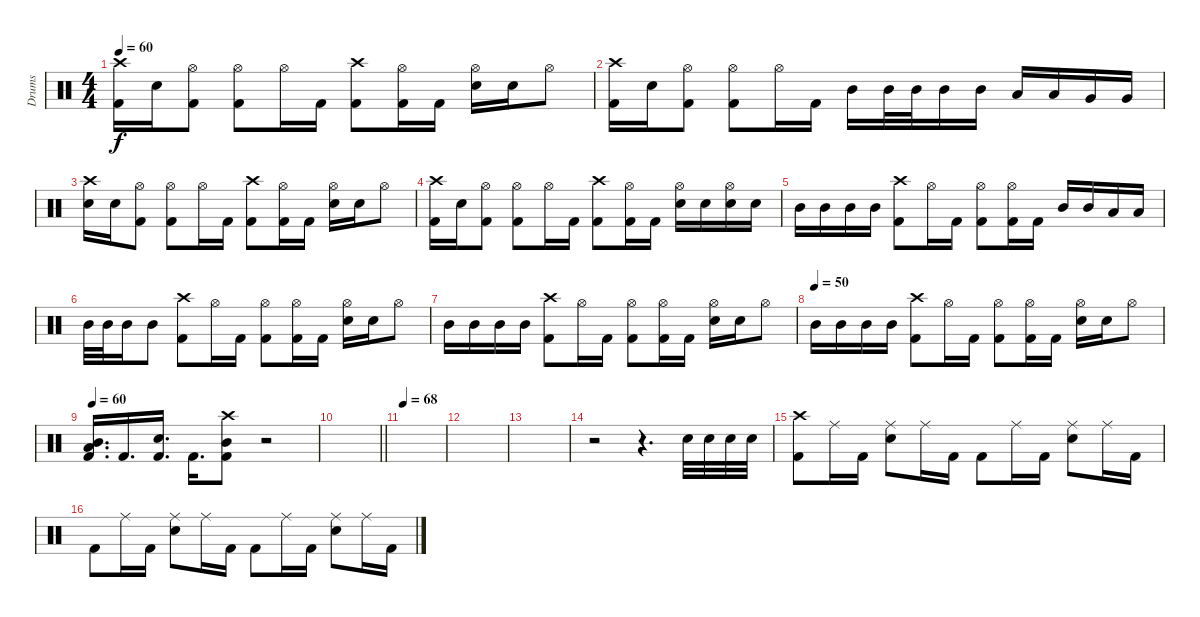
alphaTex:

\track ("Drums" "Drums") {instrument percussion}
\staff {score}
\articulation defaults
\ts (4 4)
\tempo 60
\clef neutral
\ks c
("Crash high (hit)" "Kick (hit) 2").16{dy f} "Electric Snare (hit)".16 ("Hi-Hat (open)" "Kick (hit) 2").8 ("Hi-Hat (open)" "Kick (hit) 2").8 "Hi-Hat (open)".16 "Kick (hit) 2".16 ("Crash high (hit)" "Kick (hit) 2").8 ("Hi-Hat (open)" "Kick (hit) 2").16 "Kick (hit) 2".16 ("Hi-Hat (open)" "Electric Snare (hit)").16 "Electric Snare (hit)".16 "Hi-Hat (open)".8 |
("Crash high (hit)" "Kick (hit) 2").16 "Electric Snare (hit)".16 ("Hi-Hat (open)" "Kick (hit) 2").8 ("Hi-Hat (open)" "Kick (hit) 2").8 "Hi-Hat (open)".16 "Kick (hit) 2".16 "Mid Tom (hit)".16 "Mid Tom (hit)".32 "Mid Tom (hit)".32 "Mid Tom (hit)".16 "Mid Tom (hit)".16 "Low Tom (hit)".16 "Low Tom (hit)".16 "Very Low Tom (hit)".16 "Very Low Tom (hit)".16 |
("Crash high (hit)" "Electric Snare (hit)").16 "Electric Snare (hit)".16 ("Hi-Hat (open)" "Kick (hit) 2").8 ("Hi-Hat (open)" "Kick (hit) 2").8 "Hi-Hat (open)".16 "Kick (hit) 2".16 ("Crash high (hit)" "Kick (hit) 2").8 ("Hi-Hat (open)" "Kick (hit) 2").16 "Kick (hit) 2".16 ("Hi-Hat (open)" "Electric Snare (hit)").16 "Electric Snare (hit)".16 "Hi-Hat (open)".8 |
("Crash high (hit)" "Kick (hit) 2").16 "Electric Snare (hit)".16 ("Hi-Hat (open)" "Kick (hit) 2").8 ("Hi-Hat (open)" "Kick (hit) 2").8 "Hi-Hat (open)".16 "Kick (hit) 2".16 ("Crash high (hit)" "Kick (hit) 2").8 ("Hi-Hat (open)" "Kick (hit) 2").16 "Kick (hit) 2".16 ("Hi-Hat (open)" "Electric Snare (hit)").16 "Electric Snare (hit)".16 ("Hi-Hat (open)" "Electric Snare (hit)").16 "Electric Snare (hit)".16 |
"Mid Tom (hit)".16 "Mid Tom (hit)".16 "Mid Tom (hit)".16 "Mid Tom (hit)".16 ("Crash high (hit)" "Kick (hit) 2").8 "Hi-Hat (open)".16 "Kick (hit) 2".16 ("Hi-Hat (open)" "Kick (hit) 2").8 ("Hi-Hat (open)" "Kick (hit) 2").16 "Kick (hit) 2".16 "Mid Tom (hit)".16 "Mid Tom (hit)".16 "Low Tom (hit)".16 "Low Tom (hit)".16 |
"Mid Tom (hit)".32 "Mid Tom (hit)".32 "Mid Tom (hit)".16 "Mid Tom (hit)".8 ("Crash high (hit)" "Kick (hit) 2").8 "Hi-Hat (open)".16 "Kick (hit) 2".16 ("Hi-Hat (open)" "Kick (hit) 2").8 ("Hi-Hat (open)" "Kick (hit) 2").16 "Kick (hit) 2".16 ("Hi-Hat (open)" "Electric Snare (hit)").16 "Electric Snare (hit)".16 "Hi-Hat (open)".8 |
"Mid Tom (hit)".16 "Mid Tom (hit)".16 "Mid Tom (hit)".16 "Mid Tom (hit)".16 ("Crash high (hit)" "Kick (hit) 2").8 "Hi-Hat (open)".16 "Kick (hit) 2".16 ("Hi-Hat (open)" "Kick (hit) 2").8 ("Hi-Hat (open)" "Kick (hit) 2").16 "Kick (hit) 2".16 ("Hi-Hat (open)" "Electric Snare (hit)").16 "Electric Snare (hit)".16 "Hi-Hat (open)".8 |
\tempo (50)
"Mid Tom (hit)".16 "Mid Tom (hit)".16 "Mid Tom (hit)".16 "Mid Tom (hit)".16 ("Crash high (hit)" "Kick (hit) 2").8 "Hi-Hat (open)".16 "Kick (hit) 2".16 ("Hi-Hat (open)" "Kick (hit) 2").8 ("Hi-Hat (open)" "Kick (hit) 2").16 "Kick (hit) 2".16 ("Hi-Hat (open)" "Electric Snare (hit)").16 "Electric Snare (hit)".16 "Hi-Hat (open)".8 |
\tempo 60
("Mid Tom (hit)" "Low Tom (hit)" "Kick (hit) 2").16{d} "Kick (hit) 2".16{d} ("Electric Snare (hit)" "Kick (hit) 2").16{d} "Kick (hit) 2".16{d} ("Crash high (hit)" "Mid Tom (hit)" "Kick (hit) 2").8 r.2 |
\barLineRight lightlight
|
\tempo 68
|
|
|
r.2 r.4{d} "Electric Snare (hit)".32 "Electric Snare (hit)".32 "Electric Snare (hit)".32 "Electric Snare (hit)".32 |
("Crash high (hit)" "Kick (hit) 2").8 "Ride (middle)".16 "Kick (hit) 2".16 ("Ride (middle)" "Electric Snare (hit)").8 "Ride (middle)".16 "Kick (hit) 2".16 "Kick (hit) 2".8 "Ride (middle)".16 "Kick (hit) 2".16 ("Ride (middle)" "Electric Snare (hit)").8 "Ride (middle)".16 "Kick (hit) 2".16 |
"Kick (hit) 2".8 "Ride (middle)".16 "Kick (hit) 2".16 ("Ride (middle)" "Electric Snare (hit)").8 "Ride (middle)".16 "Kick (hit) 2".16 "Kick (hit) 2".8 "Ride (middle)".16 "Kick (hit) 2".16 ("Ride (middle)" "Electric Snare (hit)").8 "Ride (middle)".16 "Kick (hit) 2".16
